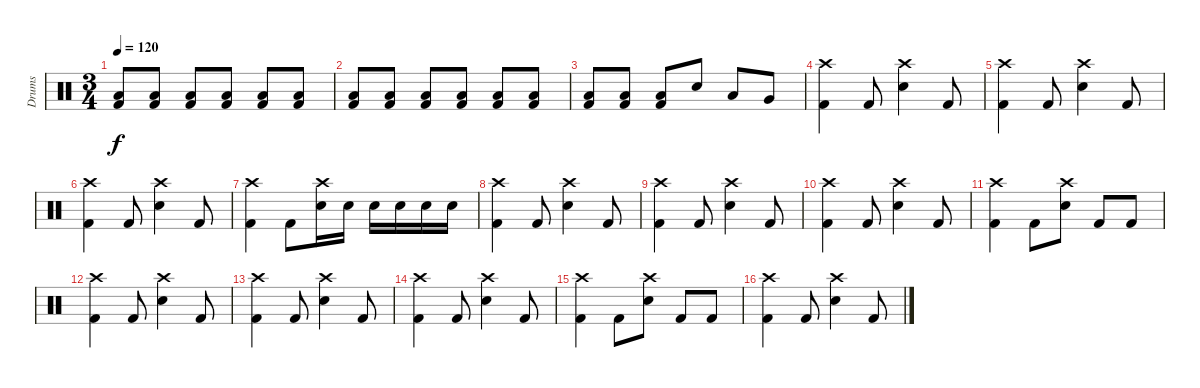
\track ("Drums" "Drums") {instrument percussion}
\staff {score}
\articulation defaults
\ts (3 4)
\tempo 120
\clef neutral
\ks c
("Kick (hit) 2" "Low Floor Tom (hit)").8{dy f} ("Kick (hit) 2" "Low Floor Tom (hit)").8 ("Kick (hit) 2" "Low Floor Tom (hit)").8 ("Kick (hit) 2" "Low Floor Tom (hit)").8 ("Kick (hit) 2" "Low Floor Tom (hit)").8 ("Kick (hit) 2" "Low Floor Tom (hit)").8 |
("Kick (hit) 2" "Low Floor Tom (hit)").8 ("Kick (hit) 2" "Low Floor Tom (hit)").8 ("Kick (hit) 2" "Low Floor Tom (hit)").8 ("Kick (hit) 2" "Low Floor Tom (hit)").8 ("Kick (hit) 2" "Low Floor Tom (hit)").8 ("Kick (hit) 2" "Low Floor Tom (hit)").8 |
("Kick (hit) 2" "Low Floor Tom (hit)").8 ("Kick (hit) 2" "Low Floor Tom (hit)").8 ("Kick (hit) 2" "Low Floor Tom (hit)").8 "Snare (hit) 2".8 "Low Tom (hit)".8 "Very Low Tom (hit)".8 |
("Crash high (hit)" "Kick (hit) 2").4 "Kick (hit) 2".8 ("Crash high (hit)" "Snare (hit) 2").4 "Kick (hit) 2".8 |
("Crash high (hit)" "Kick (hit) 2").4 "Kick (hit) 2".8 ("Crash high (hit)" "Snare (hit) 2").4 "Kick (hit) 2".8 |
("Crash high (hit)" "Kick (hit) 2").4 "Kick (hit) 2".8 ("Crash high (hit)" "Snare (hit) 2").4 "Kick (hit) 2".8 |
("Crash high (hit)" "Kick (hit) 2").4 "Kick (hit) 2".8 ("Crash high (hit)" "Snare (hit) 2").16 "Snare (hit) 2".16 "Snare (hit) 2".16 "Snare (hit) 2".16 "Snare (hit) 2".16 "Snare (hit) 2".16 |
("Crash high (hit)" "Kick (hit) 2").4 "Kick (hit) 2".8 ("Crash high (hit)" "Snare (hit) 2").4 "Kick (hit) 2".8 |
("Crash high (hit)" "Kick (hit) 2").4 "Kick (hit) 2".8 ("Crash high (hit)" "Snare (hit) 2").4 "Kick (hit) 2".8 |
("Crash high (hit)" "Kick (hit) 2").4 "Kick (hit) 2".8 ("Crash high (hit)" "Snare (hit) 2").4 "Kick (hit) 2".8 |
("Crash high (hit)" "Kick (hit) 2").4 "Kick (hit) 2".8 ("Crash high (hit)" "Snare (hit) 2").8 "Kick (hit) 2".8 "Kick (hit) 2".8 |
("Crash high (hit)" "Kick (hit) 2").4 "Kick (hit) 2".8 ("Crash high (hit)" "Snare (hit) 2").4 "Kick (hit) 2".8 |
("Crash high (hit)" "Kick (hit) 2").4 "Kick (hit) 2".8 ("Crash high (hit)" "Snare (hit) 2").4 "Kick (hit) 2".8 |
("Crash high (hit)" "Kick (hit) 2").4 "Kick (hit) 2".8 ("Crash high (hit)" "Snare (hit) 2").4 "Kick (hit) 2".8 |
("Crash high (hit)" "Kick (hit) 2").4 "Kick (hit) 2".8 ("Crash high (hit)" "Snare (hit) 2").8 "Kick (hit) 2".8 "Kick (hit) 2".8 |
("Crash high (hit)" "Kick (hit) 2").4 "Kick (hit) 2".8 ("Crash high (hit)" "Snare (hit) 2").4 "Kick (hit) 2".8
